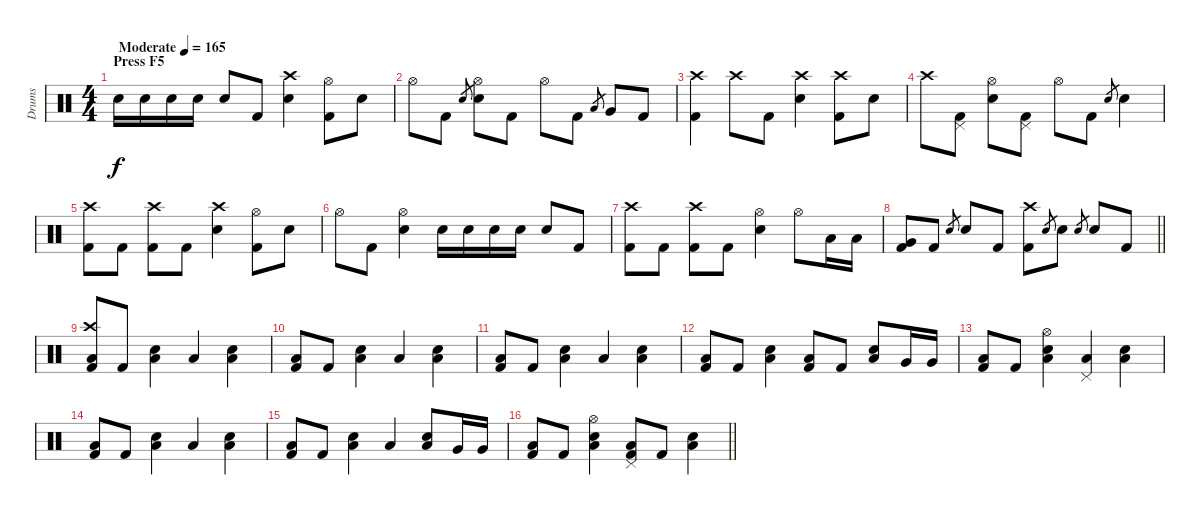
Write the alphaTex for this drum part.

\track ("Drums" "Drums") {instrument percussion}
\staff {score}
\articulation defaults
\ts (4 4)
\section ("" "Press F5")
\tempo (165 "Moderate")
\clef neutral
\ks c "Electric Snare (hit)".16{dy f} "Electric Snare (hit)".16 "Electric Snare (hit)".16 "Electric Snare (hit)".16 "Electric Snare (hit)".8 "Kick (hit) 2".8
("Crash high (hit)" "Electric Snare (hit)").4 ("Hi-Hat (open)" "Kick (hit) 2").8 "Electric Snare (hit)".8 |
"Hi-Hat (open)".8 "Kick (hit) 2".8 "Electric Snare (hit)".8{gr} ("Hi-Hat (open)" "Electric Snare (hit)").8 "Kick (hit) 2".8 "Hi-Hat (open)".8 "Kick (hit) 2".8 "Low Tom (hit)".8{gr} "Very Low Tom (hit)".8 "Kick (hit) 2".8 |
("Crash high (hit)" "Kick (hit) 2").4 "Crash high (hit)".8 "Kick (hit) 2".8 ("Crash high (hit)" "Electric Snare (hit)").4 ("Crash high (hit)" "Kick (hit) 2").8 "Electric Snare (hit)".8 |
"Crash high (hit)".8 ("Pedal Hi-Hat (hit)" "Kick (hit) 2").8 ("Hi-Hat (open)" "Electric Snare (hit)").8 ("Pedal Hi-Hat (hit)" "Kick (hit) 2").8 "Hi-Hat (open)".8 "Kick (hit) 2".8 "Electric Snare (hit)".8{gr} "Electric Snare (hit)".4 |
("Crash high (hit)" "Kick (hit) 2").8 "Kick (hit) 2".8 ("Crash high (hit)" "Kick (hit) 2").8 "Kick (hit) 2".8 ("Crash high (hit)" "Electric Snare (hit)").4 ("Hi-Hat (open)" "Kick (hit) 2").8 "Electric Snare (hit)".8 |
"Hi-Hat (open)".8 "Kick (hit) 2".8 ("Hi-Hat (open)" "Electric Snare (hit)").4 "Electric Snare (hit)".16 "Electric Snare (hit)".16 "Electric Snare (hit)".16 "Electric Snare (hit)".16 "Electric Snare (hit)".8 "Kick (hit) 2".8 |
("Crash high (hit)" "Kick (hit) 2").8 "Kick (hit) 2".8 ("Crash high (hit)" "Kick (hit) 2").8 "Kick (hit) 2".8 ("Hi-Hat (open)" "Electric Snare (hit)").4 "Hi-Hat (open)".8 "Low Tom (hit)".16 "Low Tom (hit)".16 |
\barLineRight lightlight
("Very Low Tom (hit)" "Kick (hit) 2").8 "Kick (hit) 2".8 "Electric Snare (hit)".8{gr} "Electric Snare (hit)".8 "Kick (hit) 2".8 ("Crash high (hit)" "Kick (hit) 2").8 "Electric Snare (hit)".8{gr} "Electric Snare (hit)".8 "Electric Snare (hit)".8{gr} "Electric Snare (hit)".8 "Kick (hit) 2".8 |
("Crash high (hit)" "Low Floor Tom (hit)" "Kick (hit) 2").8 "Kick (hit) 2".8 ("Electric Snare (hit)" "Low Floor Tom (hit)").4 "Low Floor Tom (hit)".4 ("Electric Snare (hit)" "Low Floor Tom (hit)").4 |
("Low Floor Tom (hit)" "Kick (hit) 2").8 "Kick (hit) 2".8 ("Electric Snare (hit)" "Low Floor Tom (hit)").4 "Low Floor Tom (hit)".4 ("Electric Snare (hit)" "Low Floor Tom (hit)").4 |
("Low Floor Tom (hit)" "Kick (hit) 2").8 "Kick (hit) 2".8 ("Electric Snare (hit)" "Low Floor Tom (hit)").4 "Low Floor Tom (hit)".4 ("Electric Snare (hit)" "Low Floor Tom (hit)").4 |
("Low Floor Tom (hit)" "Kick (hit) 2").8 "Kick (hit) 2".8 ("Electric Snare (hit)" "Low Floor Tom (hit)").4 ("Low Floor Tom (hit)" "Kick (hit) 2").8 "Kick (hit) 2".8 ("Electric Snare (hit)" "Low Floor Tom (hit)").8 "Very Low Tom (hit)".16 "Very Low Tom (hit)".16 |
("Low Floor Tom (hit)" "Kick (hit) 2").8 "Kick (hit) 2".8 ("Hi-Hat (open)" "Electric Snare (hit)" "Low Floor Tom (hit)").4 ("Pedal Hi-Hat (hit)" "Low Floor Tom (hit)").4 ("Electric Snare (hit)" "Low Floor Tom (hit)").4 |
("Low Floor Tom (hit)" "Kick (hit) 2").8 "Kick (hit) 2".8 ("Electric Snare (hit)" "Low Floor Tom (hit)").4 "Low Floor Tom (hit)".4 ("Electric Snare (hit)" "Low Floor Tom (hit)").4 |
("Low Floor Tom (hit)" "Kick (hit) 2").8 "Kick (hit) 2".8 ("Electric Snare (hit)" "Low Floor Tom (hit)").4 "Low Floor Tom (hit)".4 ("Electric Snare (hit)" "Low Floor Tom (hit)").8 "Very Low Tom (hit)".16 "Very Low Tom (hit)".16 |
\barLineRight lightlight
("Low Floor Tom (hit)" "Kick (hit) 2").8 "Kick (hit) 2".8 ("Hi-Hat (open)" "Electric Snare (hit)" "Low Floor Tom (hit)").4 ("Pedal Hi-Hat (hit)" "Low Floor Tom (hit)" "Kick (hit) 2").8 "Kick (hit) 2".8 ("Electric Snare (hit)" "Low Floor Tom (hit)").4
